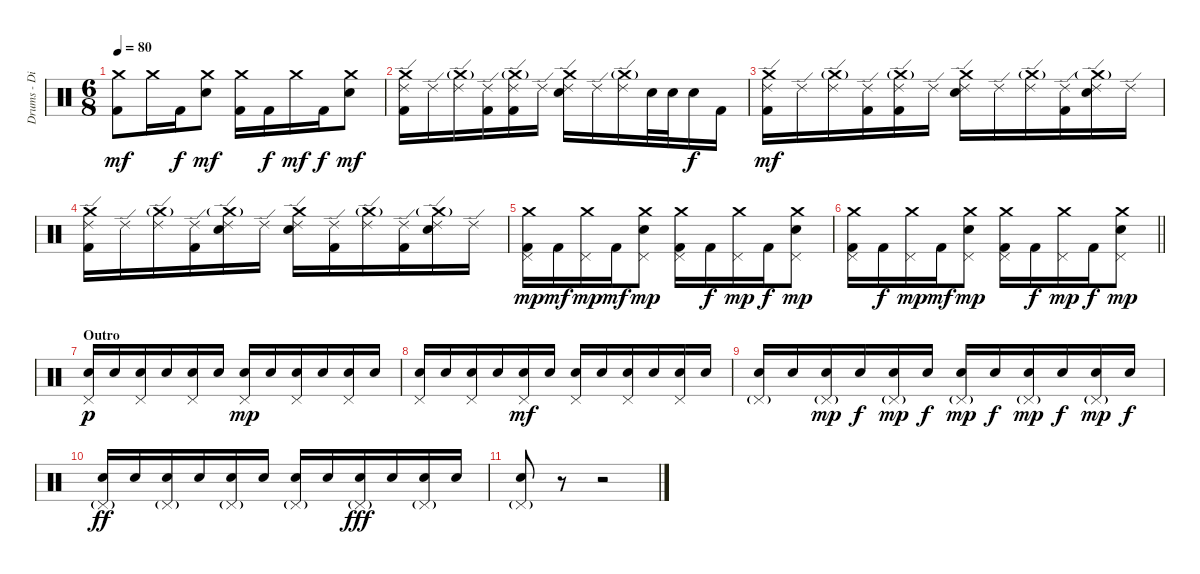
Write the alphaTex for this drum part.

\track ("Drums - Dino Campanella" "Drums - Di") {instrument percussion}
\staff {score}
\articulation defaults
\ts (6 8)
\tempo 80
\clef neutral
\ks c
("Crash medium (hit)" "Kick (hit) 2").8{dy mf} "Crash medium (hit)".16 "Kick (hit) 2".16{dy f} ("Crash medium (hit)" "Electric Snare (hit)").8{dy mf} ("Crash medium (hit)" "Kick (hit) 2").16 "Kick (hit) 2".16{dy f} "Crash medium (hit)".16{dy mf} "Kick (hit) 2".16{dy f} ("Crash medium (hit)" "Electric Snare (hit)").8{dy mf} |
("Crash medium (hit)" "Ride (edge) 2" "Kick (hit) 2").16 "Ride (edge) 2".16 ("Crash medium (hit)"{g} "Ride (edge) 2").16 ("Ride (edge) 2" "Kick (hit) 2").16 ("Crash medium (hit)"{g} "Ride (edge) 2" "Kick (hit) 2").16 "Ride (edge) 2".16 ("Crash medium (hit)" "Ride (edge) 2" "Electric Snare (hit)").16 "Ride (edge) 2".16 ("Crash medium (hit)"{g} "Ride (edge) 2").16 "Electric Snare (hit)".32 "Electric Snare (hit)".32 "Electric Snare (hit)".16{dy f} "Kick (hit) 2".16 |
("Crash medium (hit)" "Ride (edge) 2" "Kick (hit) 2").16{dy mf} "Ride (edge) 2".16 ("Crash medium (hit)"{g} "Ride (edge) 2").16 ("Ride (edge) 2" "Kick (hit) 2").16 ("Crash medium (hit)"{g} "Ride (edge) 2" "Kick (hit) 2").16 "Ride (edge) 2".16 ("Crash medium (hit)" "Ride (edge) 2" "Electric Snare (hit)").16 "Ride (edge) 2".16 ("Crash medium (hit)"{g} "Ride (edge) 2").16 ("Ride (edge) 2" "Kick (hit) 2").16 ("Crash medium (hit)"{g} "Ride (edge) 2" "Electric Snare (hit)").16 "Ride (edge) 2".16 |
("Crash medium (hit)" "Ride (edge) 2" "Kick (hit) 2").16 "Ride (edge) 2".16 ("Crash medium (hit)"{g} "Ride (edge) 2").16 ("Ride (edge) 2" "Kick (hit) 2").16 ("Crash medium (hit)"{g} "Ride (edge) 2" "Electric Snare (hit)").16 "Ride (edge) 2".16 ("Crash medium (hit)" "Ride (edge) 2" "Electric Snare (hit)").16 ("Ride (edge) 2" "Kick (hit) 2").16 ("Crash medium (hit)"{g} "Ride (edge) 2").16 ("Ride (edge) 2" "Kick (hit) 2").16 ("Crash medium (hit)"{g} "Ride (edge) 2" "Electric Snare (hit)").16 "Ride (edge) 2".16 |
("Crash medium (hit)" "Pedal Hi-Hat (hit)" "Kick (hit) 2").16{dy mp} "Kick (hit) 2".16{dy mf} ("Crash medium (hit)" "Pedal Hi-Hat (hit)").16{dy mp} "Kick (hit) 2".16{dy mf} ("Crash medium (hit)" "Pedal Hi-Hat (hit)" "Electric Snare (hit)").8{dy mp} ("Crash medium (hit)" "Pedal Hi-Hat (hit)" "Kick (hit) 2").16 "Kick (hit) 2".16{dy f} ("Crash medium (hit)" "Pedal Hi-Hat (hit)").16{dy mp} "Kick (hit) 2".16{dy f} ("Crash medium (hit)" "Pedal Hi-Hat (hit)" "Electric Snare (hit)").8{dy mp} |
\barLineRight lightlight
("Crash medium (hit)" "Pedal Hi-Hat (hit)" "Kick (hit) 2").16 "Kick (hit) 2".16{dy f} ("Crash medium (hit)" "Pedal Hi-Hat (hit)").16{dy mp} "Kick (hit) 2".16{dy mf} ("Crash medium (hit)" "Pedal Hi-Hat (hit)" "Electric Snare (hit)").8{dy mp} ("Crash medium (hit)" "Pedal Hi-Hat (hit)" "Kick (hit) 2").16 "Kick (hit) 2".16{dy f} ("Crash medium (hit)" "Pedal Hi-Hat (hit)").16{dy mp} "Kick (hit) 2".16{dy f} ("Crash medium (hit)" "Pedal Hi-Hat (hit)" "Electric Snare (hit)").8{dy mp} |
\section ("" "Outro")
("Pedal Hi-Hat (hit)" "Electric Snare (hit)").16{dy p} "Electric Snare (hit)".16 ("Pedal Hi-Hat (hit)" "Electric Snare (hit)").16 "Electric Snare (hit)".16 ("Pedal Hi-Hat (hit)" "Electric Snare (hit)").16 "Electric Snare (hit)".16 ("Pedal Hi-Hat (hit)" "Electric Snare (hit)").16{dy mp} "Electric Snare (hit)".16 ("Pedal Hi-Hat (hit)" "Electric Snare (hit)").16 "Electric Snare (hit)".16 ("Pedal Hi-Hat (hit)" "Electric Snare (hit)").16 "Electric Snare (hit)".16 |
("Pedal Hi-Hat (hit)" "Electric Snare (hit)").16 "Electric Snare (hit)".16 ("Pedal Hi-Hat (hit)" "Electric Snare (hit)").16 "Electric Snare (hit)".16 ("Pedal Hi-Hat (hit)" "Electric Snare (hit)").16{dy mf} "Electric Snare (hit)".16 ("Pedal Hi-Hat (hit)" "Electric Snare (hit)").16 "Electric Snare (hit)".16 ("Pedal Hi-Hat (hit)" "Electric Snare (hit)").16 "Electric Snare (hit)".16 ("Pedal Hi-Hat (hit)" "Electric Snare (hit)").16 "Electric Snare (hit)".16 |
("Pedal Hi-Hat (hit)"{g} "Electric Snare (hit)").16 "Electric Snare (hit)".16 ("Pedal Hi-Hat (hit)"{g} "Electric Snare (hit)").16{dy mp} "Electric Snare (hit)".16{dy f} ("Pedal Hi-Hat (hit)"{g} "Electric Snare (hit)").16{dy mp} "Electric Snare (hit)".16{dy f} ("Pedal Hi-Hat (hit)"{g} "Electric Snare (hit)").16{dy mp} "Electric Snare (hit)".16{dy f} ("Pedal Hi-Hat (hit)"{g} "Electric Snare (hit)").16{dy mp} "Electric Snare (hit)".16{dy f} ("Pedal Hi-Hat (hit)"{g} "Electric Snare (hit)").16{dy mp} "Electric Snare (hit)".16{dy f} |
("Pedal Hi-Hat (hit)"{g} "Electric Snare (hit)").16{dy ff} "Electric Snare (hit)".16 ("Pedal Hi-Hat (hit)"{g} "Electric Snare (hit)").16 "Electric Snare (hit)".16 ("Pedal Hi-Hat (hit)"{g} "Electric Snare (hit)").16 "Electric Snare (hit)".16 ("Pedal Hi-Hat (hit)"{g} "Electric Snare (hit)").16 "Electric Snare (hit)".16 ("Pedal Hi-Hat (hit)"{g} "Electric Snare (hit)").16{dy fff} "Electric Snare (hit)".16 ("Pedal Hi-Hat (hit)"{g} "Electric Snare (hit)").16 "Electric Snare (hit)".16 |
("Pedal Hi-Hat (hit)"{g} "Electric Snare (hit)").8 r.8 r.2
